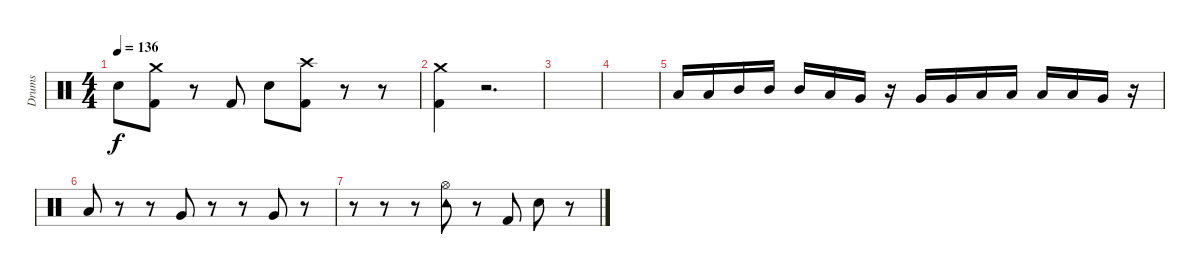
\track ("Drums" "Drums") {instrument percussion}
\staff {score}
\articulation defaults
\ts (4 4)
\tempo 136
\clef neutral
\ks c "Electric Snare (hit)".8{dy f}
("Crash medium (hit)" "Kick (hit) 2").8 r.8 "Kick (hit) 2".8 "Electric Snare (hit)".8 ("Crash high (hit)" "Kick (hit) 2").8 r.8 r.8 |
("Crash medium (hit)" "Kick (hit) 2").4 r.2{d} |
|
|
"Low Tom (hit)".16 "Low Tom (hit)".16 "Mid Tom (hit)".16 "Mid Tom (hit)".16 "Mid Tom (hit)".16 "Low Tom (hit)".16 "Very Low Tom (hit)".16 r.16 "Very Low Tom (hit)".16 "Very Low Tom (hit)".16 "Low Tom (hit)".16 "Low Tom (hit)".16 "Low Tom (hit)".16 "Low Tom (hit)".16 "Very Low Tom (hit)".16 r.16 |
"Low Tom (hit)".8 r.8 r.8 "Very Low Tom (hit)".8 r.8 r.8 "Very Low Tom (hit)".8 r.8 |
r.8 r.8 r.8 ("Hi-Hat (open)" "Tambourine (hit)").8 r.8 "Kick (hit) 2".8 "Electric Snare (hit)".8 r.8
